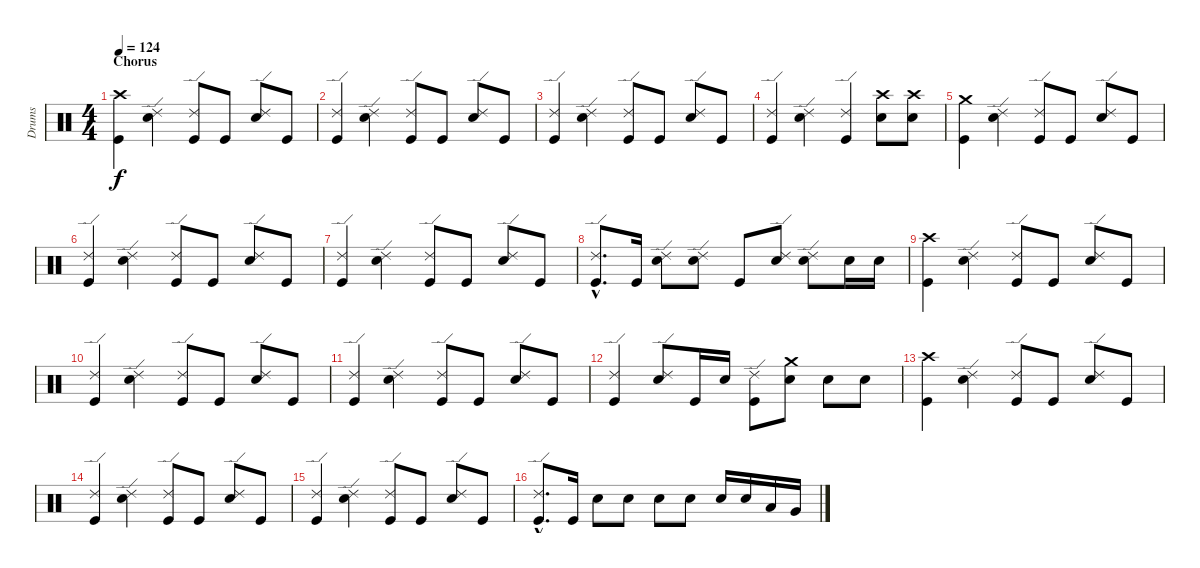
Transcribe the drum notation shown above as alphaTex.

\track ("Drums" "Drums") {instrument percussion}
\staff {score}
\articulation defaults
\ts (4 4)
\section ("" "Chorus")
\tempo 124
\clef neutral
\ks c
("Crash high (hit)" "Kick (hit)").4{dy f} ("Ride (edge) 2" "Snare (hit) 2").4 ("Ride (edge) 2" "Kick (hit)").8 "Kick (hit)".8 ("Ride (edge) 2" "Snare (hit) 2").8 "Kick (hit)".8 |
("Ride (edge) 2" "Kick (hit)").4 ("Ride (edge) 2" "Snare (hit) 2").4 ("Ride (edge) 2" "Kick (hit)").8 "Kick (hit)".8 ("Ride (edge) 2" "Snare (hit) 2").8 "Kick (hit)".8 |
("Ride (edge) 2" "Kick (hit)").4 ("Ride (edge) 2" "Snare (hit) 2").4 ("Ride (edge) 2" "Kick (hit)").8 "Kick (hit)".8 ("Ride (edge) 2" "Snare (hit) 2").8 "Kick (hit)".8 |
("Ride (edge) 2" "Kick (hit)").4 ("Ride (edge) 2" "Snare (hit) 2").4 ("Ride (edge) 2" "Kick (hit)").4 ("Crash high (hit)" "Snare (hit) 2").8 ("Crash high (hit)" "Snare (hit) 2").8 |
("Crash medium (hit)" "Kick (hit)").4 ("Ride (edge) 2" "Snare (hit) 2").4 ("Ride (edge) 2" "Kick (hit)").8 "Kick (hit)".8 ("Ride (edge) 2" "Snare (hit) 2").8 "Kick (hit)".8 |
("Ride (edge) 2" "Kick (hit)").4 ("Ride (edge) 2" "Snare (hit) 2").4 ("Ride (edge) 2" "Kick (hit)").8 "Kick (hit)".8 ("Ride (edge) 2" "Snare (hit) 2").8 "Kick (hit)".8 |
("Ride (edge) 2" "Kick (hit)").4 ("Ride (edge) 2" "Snare (hit) 2").4 ("Ride (edge) 2" "Kick (hit)").8 "Kick (hit)".8 ("Ride (edge) 2" "Snare (hit) 2").8 "Kick (hit)".8 |
("Ride (edge) 2"{hac} "Kick (hit)"{hac}).8{d} "Kick (hit)".16 ("Ride (edge) 2" "Snare (hit) 2").8 ("Ride (edge) 2" "Snare (hit) 2").8 "Kick (hit)".8 ("Ride (edge) 2" "Snare (hit) 2").8 ("Ride (edge) 2" "Snare (hit) 2").8 "Snare (hit) 2".16 "Snare (hit) 2".16 |
("Crash high (hit)" "Kick (hit)").4 ("Ride (edge) 2" "Snare (hit) 2").4 ("Ride (edge) 2" "Kick (hit)").8 "Kick (hit)".8 ("Ride (edge) 2" "Snare (hit) 2").8 "Kick (hit)".8 |
("Ride (edge) 2" "Kick (hit)").4 ("Ride (edge) 2" "Snare (hit) 2").4 ("Ride (edge) 2" "Kick (hit)").8 "Kick (hit)".8 ("Ride (edge) 2" "Snare (hit) 2").8 "Kick (hit)".8 |
("Ride (edge) 2" "Kick (hit)").4 ("Ride (edge) 2" "Snare (hit) 2").4 ("Ride (edge) 2" "Kick (hit)").8 "Kick (hit)".8 ("Ride (edge) 2" "Snare (hit) 2").8 "Kick (hit)".8 |
("Ride (edge) 2" "Kick (hit)").4 ("Ride (edge) 2" "Snare (hit) 2").8 "Kick (hit)".16 "Snare (hit) 2".16 ("Ride (edge) 2" "Kick (hit)").8 ("Crash medium (hit)" "Snare (hit) 2").8 "Snare (hit) 2".8 "Snare (hit) 2".8 |
("Crash high (hit)" "Kick (hit)").4 ("Ride (edge) 2" "Snare (hit) 2").4 ("Ride (edge) 2" "Kick (hit)").8 "Kick (hit)".8 ("Ride (edge) 2" "Snare (hit) 2").8 "Kick (hit)".8 |
("Ride (edge) 2" "Kick (hit)").4 ("Ride (edge) 2" "Snare (hit) 2").4 ("Ride (edge) 2" "Kick (hit)").8 "Kick (hit)".8 ("Ride (edge) 2" "Snare (hit) 2").8 "Kick (hit)".8 |
("Ride (edge) 2" "Kick (hit)").4 ("Ride (edge) 2" "Snare (hit) 2").4 ("Ride (edge) 2" "Kick (hit)").8 "Kick (hit)".8 ("Ride (edge) 2" "Snare (hit) 2").8 "Kick (hit)".8 |
("Ride (edge) 2"{hac} "Kick (hit)"{hac}).8{d} "Kick (hit)".16 "Snare (hit) 2".8 "Snare (hit) 2".8 "Snare (hit) 2".8 "Snare (hit) 2".8 "Snare (hit) 2".16 "Snare (hit) 2".16 "Low Tom (hit)".16 "Very Low Tom (hit)".16
